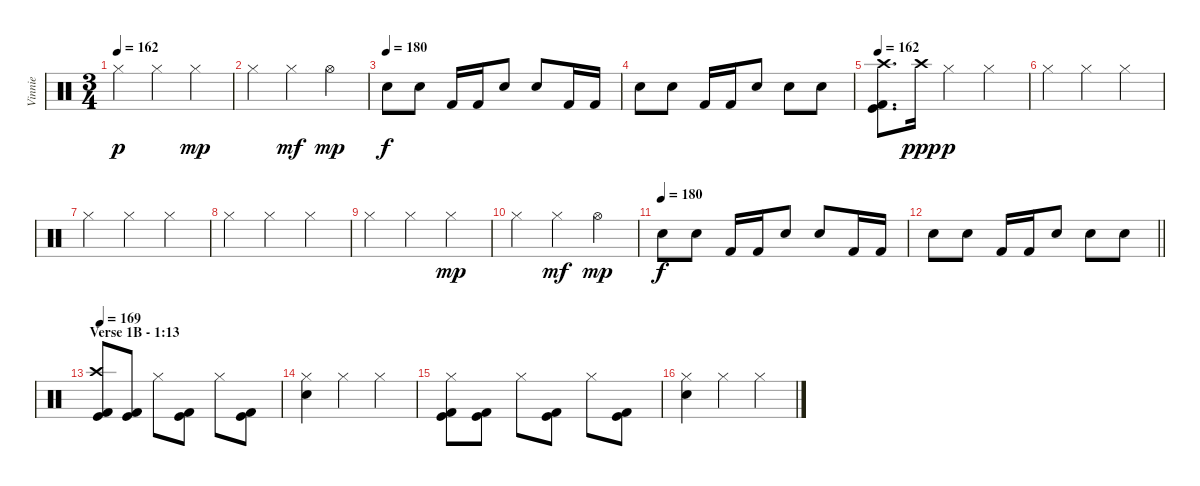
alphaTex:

\track ("Vinnie" "Vinnie") {instrument percussion}
\staff {score}
\articulation defaults
\ts (3 4)
\tempo 162
\clef neutral
\ks c "Hi-Hat (closed)".4{dy p} "Hi-Hat (closed)".4 "Hi-Hat (closed)".4{dy mp}
|
"Hi-Hat (closed)".4 "Hi-Hat (closed)".4{dy mf} "Hi-Hat (open)".4{dy mp} |
\tempo (180)
"Electric Snare (hit)".8{dy f} "Electric Snare (hit)".8 "Kick (hit) 2".16 "Kick (hit) 2".16 "Electric Snare (hit)".8 "Electric Snare (hit)".8 "Kick (hit) 2".16 "Kick (hit) 2".16 |
"Electric Snare (hit)".8 "Electric Snare (hit)".8 "Kick (hit) 2".16 "Kick (hit) 2".16 "Electric Snare (hit)".8 "Electric Snare (hit)".8 "Electric Snare (hit)".8 |
\tempo 162
("Crash high (hit)" "Kick (hit)" "Kick (hit) 2").8{d} "Crash high (hit)".16{dy ppp} "Hi-Hat (closed)".4{dy p} "Hi-Hat (closed)".4 |
"Hi-Hat (closed)".4 "Hi-Hat (closed)".4 "Hi-Hat (closed)".4 |
"Hi-Hat (closed)".4 "Hi-Hat (closed)".4 "Hi-Hat (closed)".4 |
"Hi-Hat (closed)".4 "Hi-Hat (closed)".4 "Hi-Hat (closed)".4 |
"Hi-Hat (closed)".4 "Hi-Hat (closed)".4 "Hi-Hat (closed)".4{dy mp} |
"Hi-Hat (closed)".4 "Hi-Hat (closed)".4{dy mf} "Hi-Hat (open)".4{dy mp} |
\tempo (180)
"Electric Snare (hit)".8{dy f} "Electric Snare (hit)".8 "Kick (hit) 2".16 "Kick (hit) 2".16 "Electric Snare (hit)".8 "Electric Snare (hit)".8 "Kick (hit) 2".16 "Kick (hit) 2".16 |
\barLineRight lightlight "Electric Snare (hit)".8 "Electric Snare (hit)".8 "Kick (hit) 2".16 "Kick (hit) 2".16 "Electric Snare (hit)".8 "Electric Snare (hit)".8 "Electric Snare (hit)".8
|
\section ("" "Verse 1B - 1:13")
\tempo 169
("Crash high (hit)" "Kick (hit)" "Kick (hit) 2").8 ("Kick (hit)" "Kick (hit) 2").8 "Hi-Hat (closed)".8 ("Kick (hit)" "Kick (hit) 2").8 "Hi-Hat (closed)".8 ("Kick (hit)" "Kick (hit) 2").8 |
("Hi-Hat (closed)" "Electric Snare (hit)").4 "Hi-Hat (closed)".4 "Hi-Hat (closed)".4 |
("Hi-Hat (closed)" "Kick (hit)" "Kick (hit) 2").8 ("Kick (hit)" "Kick (hit) 2").8 "Hi-Hat (closed)".8 ("Kick (hit)" "Kick (hit) 2").8 "Hi-Hat (closed)".8 ("Kick (hit)" "Kick (hit) 2").8 |
("Hi-Hat (closed)" "Electric Snare (hit)").4 "Hi-Hat (closed)".4 "Hi-Hat (closed)".4
